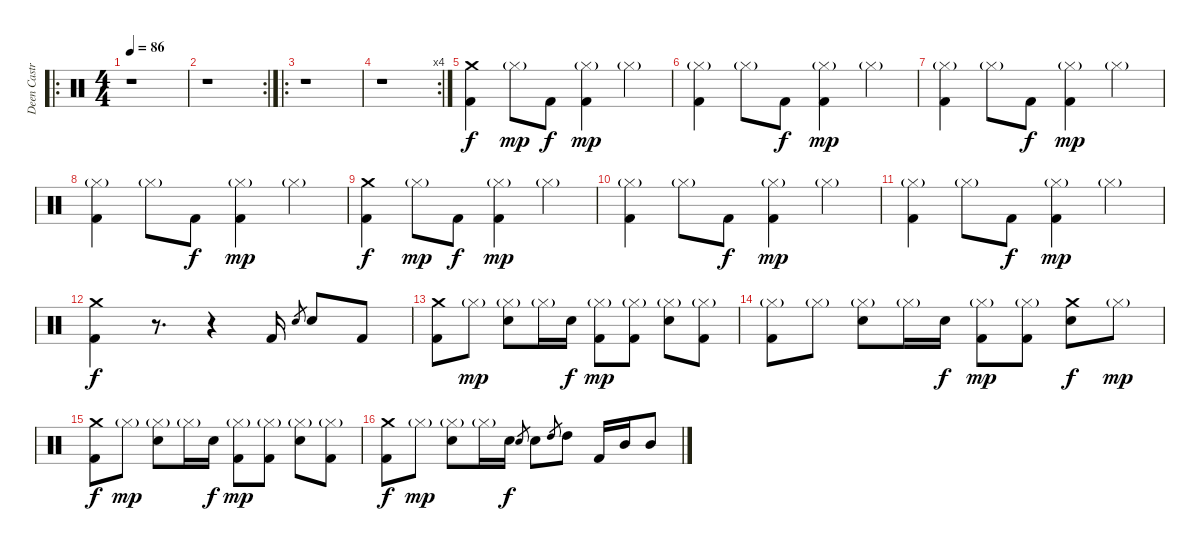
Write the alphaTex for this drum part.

\track ("Deen Castronovo" "Deen Castr") {instrument percussion}
\staff {score}
\articulation defaults
\ro
\ts (4 4)
\tempo 86
\clef neutral
\ks c
r.1{dy f} |
\rc 2
r.1 |
\ro
r.1 |
\rc 4
r.1 |
("Crash medium (hit)" "Kick (hit) 2").4 "Hi-Hat (closed)"{g}.8{dy mp} "Kick (hit) 2".8{dy f} ("Hi-Hat (closed)"{g} "Kick (hit) 2").4{dy mp} "Hi-Hat (closed)"{g}.4 |
("Hi-Hat (closed)"{g} "Kick (hit) 2").4 "Hi-Hat (closed)"{g}.8 "Kick (hit) 2".8{dy f} ("Hi-Hat (closed)"{g} "Kick (hit) 2").4{dy mp} "Hi-Hat (closed)"{g}.4 |
("Hi-Hat (closed)"{g} "Kick (hit) 2").4 "Hi-Hat (closed)"{g}.8 "Kick (hit) 2".8{dy f} ("Hi-Hat (closed)"{g} "Kick (hit) 2").4{dy mp} "Hi-Hat (closed)"{g}.4 |
("Hi-Hat (closed)"{g} "Kick (hit) 2").4 "Hi-Hat (closed)"{g}.8 "Kick (hit) 2".8{dy f} ("Hi-Hat (closed)"{g} "Kick (hit) 2").4{dy mp} "Hi-Hat (closed)"{g}.4 |
("Crash medium (hit)" "Kick (hit) 2").4{dy f} "Hi-Hat (closed)"{g}.8{dy mp} "Kick (hit) 2".8{dy f} ("Hi-Hat (closed)"{g} "Kick (hit) 2").4{dy mp} "Hi-Hat (closed)"{g}.4 |
("Hi-Hat (closed)"{g} "Kick (hit) 2").4 "Hi-Hat (closed)"{g}.8 "Kick (hit) 2".8{dy f} ("Hi-Hat (closed)"{g} "Kick (hit) 2").4{dy mp} "Hi-Hat (closed)"{g}.4 |
("Hi-Hat (closed)"{g} "Kick (hit) 2").4 "Hi-Hat (closed)"{g}.8 "Kick (hit) 2".8{dy f} ("Hi-Hat (closed)"{g} "Kick (hit) 2").4{dy mp} "Hi-Hat (closed)"{g}.4 |
("Crash medium (hit)" "Kick (hit) 2").4{dy f} r.8{d} r.4 "Kick (hit) 2".16 "Electric Snare (hit)".8{gr} "Electric Snare (hit)".8 "Kick (hit) 2".8 |
("Crash medium (hit)" "Kick (hit) 2").8 "Hi-Hat (closed)"{g}.8{dy mp} ("Hi-Hat (closed)"{g} "Electric Snare (hit)").8 "Hi-Hat (closed)"{g}.16 "Electric Snare (hit)".16{dy f} ("Hi-Hat (closed)"{g} "Kick (hit) 2").8{dy mp} ("Hi-Hat (closed)"{g} "Kick (hit) 2").8 ("Hi-Hat (closed)"{g} "Electric Snare (hit)").8 ("Hi-Hat (closed)"{g} "Kick (hit) 2").8 |
("Hi-Hat (closed)"{g} "Kick (hit) 2").8 "Hi-Hat (closed)"{g}.8 ("Hi-Hat (closed)"{g} "Electric Snare (hit)").8 "Hi-Hat (closed)"{g}.16 "Electric Snare (hit)".16{dy f} ("Hi-Hat (closed)"{g} "Kick (hit) 2").8{dy mp} ("Hi-Hat (closed)"{g} "Kick (hit) 2").8 ("Crash medium (hit)" "Electric Snare (hit)").8{dy f} "Hi-Hat (closed)"{g}.8{dy mp} |
("Crash medium (hit)" "Kick (hit) 2").8{dy f} "Hi-Hat (closed)"{g}.8{dy mp} ("Hi-Hat (closed)"{g} "Electric Snare (hit)").8 "Hi-Hat (closed)"{g}.16 "Electric Snare (hit)".16{dy f} ("Hi-Hat (closed)"{g} "Kick (hit) 2").8{dy mp} ("Hi-Hat (closed)"{g} "Kick (hit) 2").8 ("Hi-Hat (closed)"{g} "Electric Snare (hit)").8 ("Hi-Hat (closed)"{g} "Kick (hit) 2").8 |
("Crash medium (hit)" "Kick (hit) 2").8{dy f} "Hi-Hat (closed)"{g}.8{dy mp} ("Hi-Hat (closed)"{g} "Electric Snare (hit)").8 "Hi-Hat (closed)"{g}.16 "Electric Snare (hit)".16{dy f} "Electric Snare (hit)".8{gr} "Electric Snare (hit)".8 "High Tom (hit)".8{gr} "High Tom (hit)".8 "Kick (hit) 2".16 "Mid Tom (hit)".16 "Mid Tom (hit)".8
